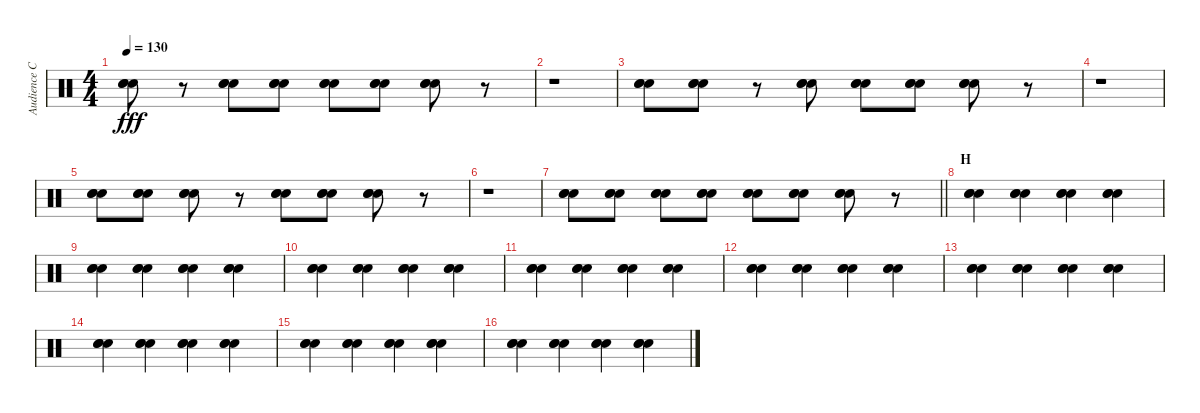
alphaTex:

\track ("Audience Claps" "Audience C") {instrument percussion}
\staff {score}
\articulation defaults
\ts (4 4)
\tempo 130
\clef neutral
\ks c
("Hand Clap (hit)" "Hand Clap (hit)" "Hand Clap (hit)").8{bd 60 dy fff} r.8 ("Hand Clap (hit)" "Hand Clap (hit)" "Hand Clap (hit)").8{bd 60} ("Hand Clap (hit)" "Hand Clap (hit)" "Hand Clap (hit)").8{bd 60} ("Hand Clap (hit)" "Hand Clap (hit)" "Hand Clap (hit)").8{bd 60} ("Hand Clap (hit)" "Hand Clap (hit)" "Hand Clap (hit)").8{bd 60} ("Hand Clap (hit)" "Hand Clap (hit)" "Hand Clap (hit)").8{bd 60} r.8 |
r.1 |
("Hand Clap (hit)" "Hand Clap (hit)" "Hand Clap (hit)").8{bd 60} ("Hand Clap (hit)" "Hand Clap (hit)" "Hand Clap (hit)").8{bd 60} r.8 ("Hand Clap (hit)" "Hand Clap (hit)" "Hand Clap (hit)").8{bd 60} ("Hand Clap (hit)" "Hand Clap (hit)" "Hand Clap (hit)").8{bd 60} ("Hand Clap (hit)" "Hand Clap (hit)" "Hand Clap (hit)").8{bd 60} ("Hand Clap (hit)" "Hand Clap (hit)" "Hand Clap (hit)").8{bd 60} r.8 |
r.1 |
("Hand Clap (hit)" "Hand Clap (hit)" "Hand Clap (hit)").8{bd 60} ("Hand Clap (hit)" "Hand Clap (hit)" "Hand Clap (hit)").8{bd 60} ("Hand Clap (hit)" "Hand Clap (hit)" "Hand Clap (hit)").8{bd 60} r.8 ("Hand Clap (hit)" "Hand Clap (hit)" "Hand Clap (hit)").8{bd 60} ("Hand Clap (hit)" "Hand Clap (hit)" "Hand Clap (hit)").8{bd 60} ("Hand Clap (hit)" "Hand Clap (hit)" "Hand Clap (hit)").8{bd 60} r.8 |
r.1 |
\barLineRight lightlight
("Hand Clap (hit)" "Hand Clap (hit)" "Hand Clap (hit)").8{bd 60} ("Hand Clap (hit)" "Hand Clap (hit)" "Hand Clap (hit)").8{bd 60} ("Hand Clap (hit)" "Hand Clap (hit)" "Hand Clap (hit)").8{bd 60} ("Hand Clap (hit)" "Hand Clap (hit)" "Hand Clap (hit)").8{bd 60} ("Hand Clap (hit)" "Hand Clap (hit)" "Hand Clap (hit)").8{bd 60} ("Hand Clap (hit)" "Hand Clap (hit)" "Hand Clap (hit)").8{bd 60} ("Hand Clap (hit)" "Hand Clap (hit)" "Hand Clap (hit)").8{bd 60} r.8 |
\section ("" "H")
("Hand Clap (hit)" "Hand Clap (hit)" "Hand Clap (hit)").4{bd 60} ("Hand Clap (hit)" "Hand Clap (hit)" "Hand Clap (hit)").4{bd 60} ("Hand Clap (hit)" "Hand Clap (hit)" "Hand Clap (hit)").4{bd 60} ("Hand Clap (hit)" "Hand Clap (hit)" "Hand Clap (hit)").4{bd 60} |
("Hand Clap (hit)" "Hand Clap (hit)" "Hand Clap (hit)").4{bd 60} ("Hand Clap (hit)" "Hand Clap (hit)" "Hand Clap (hit)").4{bd 60} ("Hand Clap (hit)" "Hand Clap (hit)" "Hand Clap (hit)").4{bd 60} ("Hand Clap (hit)" "Hand Clap (hit)" "Hand Clap (hit)").4{bd 60} |
("Hand Clap (hit)" "Hand Clap (hit)" "Hand Clap (hit)").4{bd 60} ("Hand Clap (hit)" "Hand Clap (hit)" "Hand Clap (hit)").4{bd 60} ("Hand Clap (hit)" "Hand Clap (hit)" "Hand Clap (hit)").4{bd 60} ("Hand Clap (hit)" "Hand Clap (hit)" "Hand Clap (hit)").4{bd 60} |
("Hand Clap (hit)" "Hand Clap (hit)" "Hand Clap (hit)").4{bd 60} ("Hand Clap (hit)" "Hand Clap (hit)" "Hand Clap (hit)").4{bd 60} ("Hand Clap (hit)" "Hand Clap (hit)" "Hand Clap (hit)").4{bd 60} ("Hand Clap (hit)" "Hand Clap (hit)" "Hand Clap (hit)").4{bd 60} |
("Hand Clap (hit)" "Hand Clap (hit)" "Hand Clap (hit)").4{bd 60} ("Hand Clap (hit)" "Hand Clap (hit)" "Hand Clap (hit)").4{bd 60} ("Hand Clap (hit)" "Hand Clap (hit)" "Hand Clap (hit)").4{bd 60} ("Hand Clap (hit)" "Hand Clap (hit)" "Hand Clap (hit)").4{bd 60} |
("Hand Clap (hit)" "Hand Clap (hit)" "Hand Clap (hit)").4{bd 60} ("Hand Clap (hit)" "Hand Clap (hit)" "Hand Clap (hit)").4{bd 60} ("Hand Clap (hit)" "Hand Clap (hit)" "Hand Clap (hit)").4{bd 60} ("Hand Clap (hit)" "Hand Clap (hit)" "Hand Clap (hit)").4{bd 60} |
("Hand Clap (hit)" "Hand Clap (hit)" "Hand Clap (hit)").4{bd 60} ("Hand Clap (hit)" "Hand Clap (hit)" "Hand Clap (hit)").4{bd 60} ("Hand Clap (hit)" "Hand Clap (hit)" "Hand Clap (hit)").4{bd 60} ("Hand Clap (hit)" "Hand Clap (hit)" "Hand Clap (hit)").4{bd 60} |
("Hand Clap (hit)" "Hand Clap (hit)" "Hand Clap (hit)").4{bd 60} ("Hand Clap (hit)" "Hand Clap (hit)" "Hand Clap (hit)").4{bd 60} ("Hand Clap (hit)" "Hand Clap (hit)" "Hand Clap (hit)").4{bd 60} ("Hand Clap (hit)" "Hand Clap (hit)" "Hand Clap (hit)").4{bd 60} |
("Hand Clap (hit)" "Hand Clap (hit)" "Hand Clap (hit)").4{bd 60} ("Hand Clap (hit)" "Hand Clap (hit)" "Hand Clap (hit)").4{bd 60} ("Hand Clap (hit)" "Hand Clap (hit)" "Hand Clap (hit)").4{bd 60} ("Hand Clap (hit)" "Hand Clap (hit)" "Hand Clap (hit)").4{bd 60}
